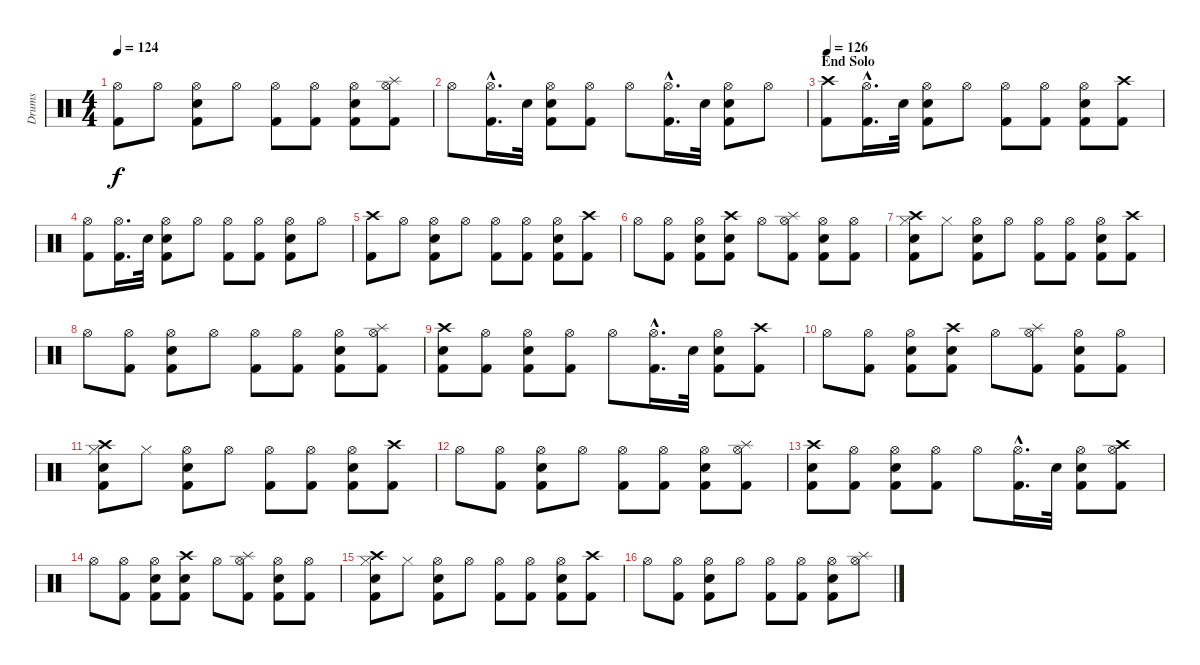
\track ("Drums" "Drums") {instrument percussion}
\staff {score}
\articulation defaults
\ts (4 4)
\tempo 124
\clef neutral
\ks c
("Hi-Hat (open)" "Kick (hit) 2").8{dy f} "Hi-Hat (open)".8 ("Snare (hit) 2" "Hi-Hat (open)" "Kick (hit) 2").8 "Hi-Hat (open)".8 ("Kick (hit) 2" "Hi-Hat (open)").8 ("Kick (hit) 2" "Hi-Hat (open)").8 ("Kick (hit) 2" "Hi-Hat (open)" "Snare (hit) 2").8 ("Hi-Hat (open)" "Kick (hit) 2" "Splash (hit)").8 |
"Hi-Hat (open)".8 ("Kick (hit) 2"{hac} "Hi-Hat (open)").16{d} "Snare (hit) 2".32 ("Hi-Hat (open)" "Kick (hit) 2" "Snare (hit) 2").8 ("Kick (hit) 2" "Hi-Hat (open)").8 "Hi-Hat (open)".8 ("Kick (hit) 2"{hac} "Hi-Hat (open)").16{d} "Snare (hit) 2".32 ("Hi-Hat (open)" "Snare (hit) 2" "Kick (hit) 2").8 "Hi-Hat (open)".8 |
\section ("" "End Solo")
\tempo 126
("Kick (hit) 2" "Crash high (hit)").8 ("Hi-Hat (open)"{hac} "Kick (hit) 2").16{d} "Snare (hit) 2".32 ("Hi-Hat (open)" "Snare (hit) 2" "Kick (hit) 2").8 "Hi-Hat (open)".8 ("Kick (hit) 2" "Hi-Hat (open)").8 ("Hi-Hat (open)" "Kick (hit) 2").8 ("Snare (hit) 2" "Kick (hit) 2" "Hi-Hat (open)").8 ("Kick (hit) 2" "Crash high (hit)").8 |
("Kick (hit) 2" "Hi-Hat (open)").8 ("Kick (hit) 2" "Hi-Hat (open)").16{d} "Snare (hit) 2".32 ("Hi-Hat (open)" "Snare (hit) 2" "Kick (hit) 2").8 "Hi-Hat (open)".8 ("Kick (hit) 2" "Hi-Hat (open)").8 ("Hi-Hat (open)" "Kick (hit) 2").8 ("Kick (hit) 2" "Snare (hit) 2" "Hi-Hat (open)").8 "Hi-Hat (open)".8 |
("Crash high (hit)" "Kick (hit) 2").8 "Hi-Hat (open)".8 ("Snare (hit) 2" "Hi-Hat (open)" "Kick (hit) 2").8 "Hi-Hat (open)".8 ("Kick (hit) 2" "Hi-Hat (open)").8 ("Kick (hit) 2" "Hi-Hat (open)").8 ("Kick (hit) 2" "Hi-Hat (open)" "Snare (hit) 2").8 ("Kick (hit) 2" "Crash high (hit)").8 |
"Hi-Hat (open)".8 ("Kick (hit) 2" "Hi-Hat (open)").8 ("Kick (hit) 2" "Hi-Hat (open)" "Snare (hit) 2").8 ("Kick (hit) 2" "Snare (hit) 2" "Crash high (hit)").8 "Hi-Hat (open)".8 ("Kick (hit) 2" "Splash (hit)" "Hi-Hat (open)").8 ("Kick (hit) 2" "Snare (hit) 2" "Hi-Hat (open)").8 ("Hi-Hat (open)" "Kick (hit) 2").8 |
("Kick (hit) 2" "Hi-Hat (closed)" "Snare (hit) 2" "Crash high (hit)").8 "Hi-Hat (closed)".8 ("Kick (hit) 2" "Snare (hit) 2" "Hi-Hat (open)").8 "Hi-Hat (open)".8 ("Kick (hit) 2" "Hi-Hat (open)").8 ("Kick (hit) 2" "Hi-Hat (open)").8 ("Hi-Hat (open)" "Kick (hit) 2" "Snare (hit) 2").8 ("Kick (hit) 2" "Crash high (hit)").8 |
"Hi-Hat (open)".8 ("Kick (hit) 2" "Hi-Hat (open)").8 ("Kick (hit) 2" "Hi-Hat (open)" "Snare (hit) 2").8 "Hi-Hat (open)".8 ("Kick (hit) 2" "Hi-Hat (open)").8 ("Kick (hit) 2" "Hi-Hat (open)").8 ("Kick (hit) 2" "Hi-Hat (open)" "Snare (hit) 2").8 ("Hi-Hat (open)" "Kick (hit) 2" "Splash (hit)").8 |
("Snare (hit) 2" "Kick (hit) 2" "Crash high (hit)").8 ("Hi-Hat (open)" "Kick (hit) 2").8 ("Kick (hit) 2" "Hi-Hat (open)" "Snare (hit) 2").8 ("Kick (hit) 2" "Hi-Hat (open)").8 "Hi-Hat (open)".8 ("Hi-Hat (open)" "Kick (hit) 2"{hac}).16{d} "Snare (hit) 2".32 ("Kick (hit) 2" "Hi-Hat (open)" "Snare (hit) 2").8 ("Kick (hit) 2" "Crash high (hit)").8 |
"Hi-Hat (open)".8 ("Kick (hit) 2" "Hi-Hat (open)").8 ("Kick (hit) 2" "Hi-Hat (open)" "Snare (hit) 2").8 ("Kick (hit) 2" "Snare (hit) 2" "Crash high (hit)").8 "Hi-Hat (open)".8 ("Kick (hit) 2" "Splash (hit)" "Hi-Hat (open)").8 ("Kick (hit) 2" "Snare (hit) 2" "Hi-Hat (open)").8 ("Hi-Hat (open)" "Kick (hit) 2").8 |
("Kick (hit) 2" "Hi-Hat (closed)" "Snare (hit) 2" "Crash high (hit)").8 "Hi-Hat (closed)".8 ("Kick (hit) 2" "Snare (hit) 2" "Hi-Hat (open)").8 "Hi-Hat (open)".8 ("Kick (hit) 2" "Hi-Hat (open)").8 ("Kick (hit) 2" "Hi-Hat (open)").8 ("Hi-Hat (open)" "Kick (hit) 2" "Snare (hit) 2").8 ("Kick (hit) 2" "Crash high (hit)").8 |
"Hi-Hat (open)".8 ("Kick (hit) 2" "Hi-Hat (open)").8 ("Kick (hit) 2" "Hi-Hat (open)" "Snare (hit) 2").8 "Hi-Hat (open)".8 ("Kick (hit) 2" "Hi-Hat (open)").8 ("Kick (hit) 2" "Hi-Hat (open)").8 ("Kick (hit) 2" "Hi-Hat (open)" "Snare (hit) 2").8 ("Hi-Hat (open)" "Kick (hit) 2" "Splash (hit)").8 |
("Snare (hit) 2" "Kick (hit) 2" "Crash high (hit)").8 ("Hi-Hat (open)" "Kick (hit) 2").8 ("Kick (hit) 2" "Hi-Hat (open)" "Snare (hit) 2").8 ("Kick (hit) 2" "Hi-Hat (open)").8 "Hi-Hat (open)".8 ("Hi-Hat (open)" "Kick (hit) 2"{hac}).16{d} "Snare (hit) 2".32 ("Kick (hit) 2" "Hi-Hat (open)" "Snare (hit) 2").8 ("Kick (hit) 2" "Hi-Hat (open)" "Crash high (hit)").8 |
"Hi-Hat (open)".8 ("Kick (hit) 2" "Hi-Hat (open)").8 ("Kick (hit) 2" "Hi-Hat (open)" "Snare (hit) 2").8 ("Kick (hit) 2" "Snare (hit) 2" "Crash high (hit)").8 "Hi-Hat (open)".8 ("Kick (hit) 2" "Splash (hit)" "Hi-Hat (open)").8 ("Kick (hit) 2" "Snare (hit) 2" "Hi-Hat (open)").8 ("Hi-Hat (open)" "Kick (hit) 2").8 |
("Kick (hit) 2" "Hi-Hat (closed)" "Snare (hit) 2" "Crash high (hit)").8 "Hi-Hat (closed)".8 ("Kick (hit) 2" "Snare (hit) 2" "Hi-Hat (open)").8 "Hi-Hat (open)".8 ("Kick (hit) 2" "Hi-Hat (open)").8 ("Kick (hit) 2" "Hi-Hat (open)").8 ("Hi-Hat (open)" "Kick (hit) 2" "Snare (hit) 2").8 ("Kick (hit) 2" "Crash high (hit)").8 |
"Hi-Hat (open)".8 ("Kick (hit) 2" "Hi-Hat (open)").8 ("Kick (hit) 2" "Hi-Hat (open)" "Snare (hit) 2").8 "Hi-Hat (open)".8 ("Kick (hit) 2" "Hi-Hat (open)").8 ("Kick (hit) 2" "Hi-Hat (open)").8 ("Kick (hit) 2" "Hi-Hat (open)" "Snare (hit) 2").8 ("Hi-Hat (open)" "Splash (hit)").8
